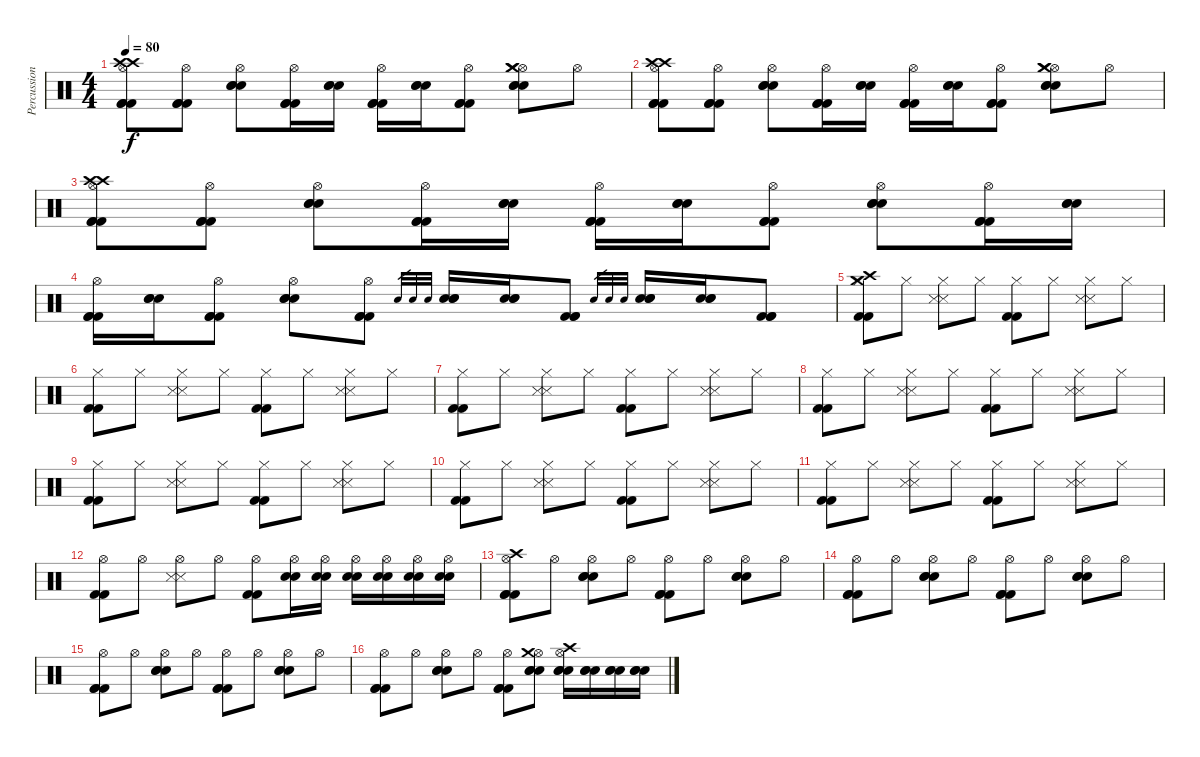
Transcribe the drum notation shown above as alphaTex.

\track ("Percussion" "Percussion") {instrument percussion}
\staff {score}
\articulation defaults
\ts (4 4)
\tempo 80
\clef neutral
\ks c
("Hi-Hat (open)" "Kick (hit) 2" "Kick (hit) 2" "Kick (hit) 2" "Crash high (hit)" "Crash high (hit)").8{dy f} ("Hi-Hat (open)" "Kick (hit) 2" "Kick (hit) 2" "Kick (hit) 2").8 ("Hi-Hat (open)" "Electric Snare (hit)" "Electric Snare (hit)" "Electric Snare (hit)").8 ("Hi-Hat (open)" "Kick (hit) 2" "Kick (hit) 2" "Kick (hit) 2").16 ("Electric Snare (hit)" "Electric Snare (hit)" "Electric Snare (hit)").16 ("Hi-Hat (open)" "Kick (hit) 2" "Kick (hit) 2" "Kick (hit) 2").16 ("Electric Snare (hit)" "Electric Snare (hit)" "Electric Snare (hit)").16 ("Hi-Hat (open)" "Kick (hit) 2" "Kick (hit) 2" "Kick (hit) 2").8 ("Hi-Hat (open)" "Electric Snare (hit)" "Electric Snare (hit)" "Electric Snare (hit)" "Crash medium (hit)" "Crash medium (hit)").8 "Hi-Hat (open)".8 |
("Hi-Hat (open)" "Kick (hit) 2" "Kick (hit) 2" "Kick (hit) 2" "Crash high (hit)" "Crash high (hit)").8 ("Hi-Hat (open)" "Kick (hit) 2" "Kick (hit) 2" "Kick (hit) 2").8 ("Hi-Hat (open)" "Electric Snare (hit)" "Electric Snare (hit)" "Electric Snare (hit)").8 ("Hi-Hat (open)" "Kick (hit) 2" "Kick (hit) 2" "Kick (hit) 2").16 ("Electric Snare (hit)" "Electric Snare (hit)" "Electric Snare (hit)").16 ("Hi-Hat (open)" "Kick (hit) 2" "Kick (hit) 2" "Kick (hit) 2").16 ("Electric Snare (hit)" "Electric Snare (hit)" "Electric Snare (hit)").16 ("Hi-Hat (open)" "Kick (hit) 2" "Kick (hit) 2" "Kick (hit) 2").8 ("Hi-Hat (open)" "Electric Snare (hit)" "Electric Snare (hit)" "Electric Snare (hit)" "Crash medium (hit)" "Crash medium (hit)").8 "Hi-Hat (open)".8 |
("Hi-Hat (open)" "Kick (hit) 2" "Kick (hit) 2" "Kick (hit) 2" "Crash high (hit)" "Crash high (hit)").8 ("Hi-Hat (open)" "Kick (hit) 2" "Kick (hit) 2" "Kick (hit) 2").8 ("Hi-Hat (open)" "Electric Snare (hit)" "Electric Snare (hit)" "Electric Snare (hit)").8 ("Hi-Hat (open)" "Kick (hit) 2" "Kick (hit) 2" "Kick (hit) 2").16 ("Electric Snare (hit)" "Electric Snare (hit)" "Electric Snare (hit)").16 ("Hi-Hat (open)" "Kick (hit) 2" "Kick (hit) 2" "Kick (hit) 2").16 ("Electric Snare (hit)" "Electric Snare (hit)" "Electric Snare (hit)").16 ("Hi-Hat (open)" "Kick (hit) 2" "Kick (hit) 2" "Kick (hit) 2").8 ("Hi-Hat (open)" "Electric Snare (hit)" "Electric Snare (hit)" "Electric Snare (hit)").8 ("Hi-Hat (open)" "Kick (hit) 2" "Kick (hit) 2" "Kick (hit) 2").16 ("Electric Snare (hit)" "Electric Snare (hit)" "Electric Snare (hit)").16 |
("Hi-Hat (open)" "Kick (hit) 2" "Kick (hit) 2" "Kick (hit) 2").16 ("Electric Snare (hit)" "Electric Snare (hit)" "Electric Snare (hit)").16 ("Hi-Hat (open)" "Kick (hit) 2" "Kick (hit) 2" "Kick (hit) 2").8 ("Hi-Hat (open)" "Electric Snare (hit)" "Electric Snare (hit)" "Electric Snare (hit)").8 ("Hi-Hat (open)" "Kick (hit) 2" "Kick (hit) 2" "Kick (hit) 2").8 "Electric Snare (hit)".32{gr} "Electric Snare (hit)".32{gr} "Electric Snare (hit)".32{gr} ("Electric Snare (hit)" "Electric Snare (hit)" "Electric Snare (hit)").16 ("Electric Snare (hit)" "Electric Snare (hit)" "Electric Snare (hit)").16 ("Kick (hit) 2" "Kick (hit) 2" "Kick (hit) 2").8 "Electric Snare (hit)".32{gr} "Electric Snare (hit)".32{gr} "Electric Snare (hit)".32{gr} ("Electric Snare (hit)" "Electric Snare (hit)" "Electric Snare (hit)").16 ("Electric Snare (hit)" "Electric Snare (hit)" "Electric Snare (hit)").16 ("Kick (hit) 2" "Kick (hit) 2" "Kick (hit) 2").8 |
("Hi-Hat (closed)" "Kick (hit) 2" "Kick (hit) 2" "Crash high (hit)" "Crash medium (hit)").8 "Hi-Hat (closed)".8 ("Hi-Hat (closed)" "Snare (side stick) 3" "Snare (side stick) 3").8 "Hi-Hat (closed)".8 ("Hi-Hat (closed)" "Kick (hit) 2" "Kick (hit) 2").8 "Hi-Hat (closed)".8 ("Hi-Hat (closed)" "Snare (side stick) 3" "Snare (side stick) 3").8 "Hi-Hat (closed)".8 |
("Hi-Hat (closed)" "Kick (hit) 2" "Kick (hit) 2").8 "Hi-Hat (closed)".8 ("Hi-Hat (closed)" "Snare (side stick) 3" "Snare (side stick) 3").8 "Hi-Hat (closed)".8 ("Hi-Hat (closed)" "Kick (hit) 2" "Kick (hit) 2").8 "Hi-Hat (closed)".8 ("Hi-Hat (closed)" "Snare (side stick) 3" "Snare (side stick) 3").8 "Hi-Hat (closed)".8 |
("Hi-Hat (closed)" "Kick (hit) 2" "Kick (hit) 2").8 "Hi-Hat (closed)".8 ("Hi-Hat (closed)" "Snare (side stick) 3" "Snare (side stick) 3").8 "Hi-Hat (closed)".8 ("Hi-Hat (closed)" "Kick (hit) 2" "Kick (hit) 2").8 "Hi-Hat (closed)".8 ("Hi-Hat (closed)" "Snare (side stick) 3" "Snare (side stick) 3").8 "Hi-Hat (closed)".8 |
("Hi-Hat (closed)" "Kick (hit) 2" "Kick (hit) 2").8 "Hi-Hat (closed)".8 ("Hi-Hat (closed)" "Snare (side stick) 3" "Snare (side stick) 3").8 "Hi-Hat (closed)".8 ("Hi-Hat (closed)" "Kick (hit) 2" "Kick (hit) 2").8 "Hi-Hat (closed)".8 ("Hi-Hat (closed)" "Snare (side stick) 3" "Snare (side stick) 3").8 "Hi-Hat (closed)".8 |
("Hi-Hat (closed)" "Kick (hit) 2" "Kick (hit) 2").8 "Hi-Hat (closed)".8 ("Hi-Hat (closed)" "Snare (side stick) 3" "Snare (side stick) 3").8 "Hi-Hat (closed)".8 ("Hi-Hat (closed)" "Kick (hit) 2" "Kick (hit) 2").8 "Hi-Hat (closed)".8 ("Hi-Hat (closed)" "Snare (side stick) 3" "Snare (side stick) 3").8 "Hi-Hat (closed)".8 |
("Hi-Hat (closed)" "Kick (hit) 2" "Kick (hit) 2").8 "Hi-Hat (closed)".8 ("Hi-Hat (closed)" "Snare (side stick) 3" "Snare (side stick) 3").8 "Hi-Hat (closed)".8 ("Hi-Hat (closed)" "Kick (hit) 2" "Kick (hit) 2").8 "Hi-Hat (closed)".8 ("Hi-Hat (closed)" "Snare (side stick) 3" "Snare (side stick) 3").8 "Hi-Hat (closed)".8 |
("Hi-Hat (closed)" "Kick (hit) 2" "Kick (hit) 2").8 "Hi-Hat (closed)".8 ("Hi-Hat (closed)" "Snare (side stick) 3" "Snare (side stick) 3").8 "Hi-Hat (closed)".8 ("Hi-Hat (closed)" "Kick (hit) 2" "Kick (hit) 2").8 "Hi-Hat (closed)".8 ("Hi-Hat (closed)" "Snare (side stick) 3" "Snare (side stick) 3").8 "Hi-Hat (closed)".8 |
("Hi-Hat (open)" "Kick (hit) 2" "Kick (hit) 2").8 "Hi-Hat (open)".8 ("Hi-Hat (open)" "Snare (side stick) 3" "Snare (side stick) 3").8 "Hi-Hat (open)".8 ("Hi-Hat (open)" "Kick (hit) 2" "Kick (hit) 2").8 ("Hi-Hat (open)" "Electric Snare (hit)" "Electric Snare (hit)").16 ("Hi-Hat (open)" "Electric Snare (hit)" "Electric Snare (hit)").16 ("Hi-Hat (open)" "Electric Snare (hit)" "Electric Snare (hit)").16 ("Hi-Hat (open)" "Electric Snare (hit)" "Electric Snare (hit)").16 ("Hi-Hat (open)" "Electric Snare (hit)" "Electric Snare (hit)").16 ("Hi-Hat (open)" "Electric Snare (hit)" "Electric Snare (hit)").16 |
("Hi-Hat (open)" "Kick (hit) 2" "Kick (hit) 2" "Kick (hit) 2" "Crash high (hit)").8 "Hi-Hat (open)".8 ("Hi-Hat (open)" "Electric Snare (hit)" "Electric Snare (hit)" "Electric Snare (hit)").8 "Hi-Hat (open)".8 ("Hi-Hat (open)" "Kick (hit) 2" "Kick (hit) 2" "Kick (hit) 2").8 "Hi-Hat (open)".8 ("Hi-Hat (open)" "Electric Snare (hit)" "Electric Snare (hit)" "Electric Snare (hit)").8 "Hi-Hat (open)".8 |
("Hi-Hat (open)" "Kick (hit) 2" "Kick (hit) 2" "Kick (hit) 2").8 "Hi-Hat (open)".8 ("Hi-Hat (open)" "Electric Snare (hit)" "Electric Snare (hit)" "Electric Snare (hit)").8 "Hi-Hat (open)".8 ("Hi-Hat (open)" "Kick (hit) 2" "Kick (hit) 2" "Kick (hit) 2").8 "Hi-Hat (open)".8 ("Hi-Hat (open)" "Electric Snare (hit)" "Electric Snare (hit)" "Electric Snare (hit)").8 "Hi-Hat (open)".8 |
("Hi-Hat (open)" "Kick (hit) 2" "Kick (hit) 2" "Kick (hit) 2").8 "Hi-Hat (open)".8 ("Hi-Hat (open)" "Electric Snare (hit)" "Electric Snare (hit)" "Electric Snare (hit)").8 "Hi-Hat (open)".8 ("Hi-Hat (open)" "Kick (hit) 2" "Kick (hit) 2" "Kick (hit) 2").8 "Hi-Hat (open)".8 ("Hi-Hat (open)" "Electric Snare (hit)" "Electric Snare (hit)" "Electric Snare (hit)").8 "Hi-Hat (open)".8 |
("Hi-Hat (open)" "Kick (hit) 2" "Kick (hit) 2" "Kick (hit) 2").8 "Hi-Hat (open)".8 ("Hi-Hat (open)" "Electric Snare (hit)" "Electric Snare (hit)" "Electric Snare (hit)").8 "Hi-Hat (open)".8 ("Hi-Hat (open)" "Kick (hit) 2" "Kick (hit) 2" "Kick (hit) 2").8 ("Hi-Hat (open)" "Electric Snare (hit)" "Electric Snare (hit)" "Electric Snare (hit)" "Crash medium (hit)").8 ("Hi-Hat (open)" "Electric Snare (hit)" "Electric Snare (hit)" "Electric Snare (hit)" "Crash high (hit)").16 ("Electric Snare (hit)" "Electric Snare (hit)" "Electric Snare (hit)").16 ("Electric Snare (hit)" "Electric Snare (hit)" "Electric Snare (hit)").16 ("Electric Snare (hit)" "Electric Snare (hit)" "Electric Snare (hit)").16
